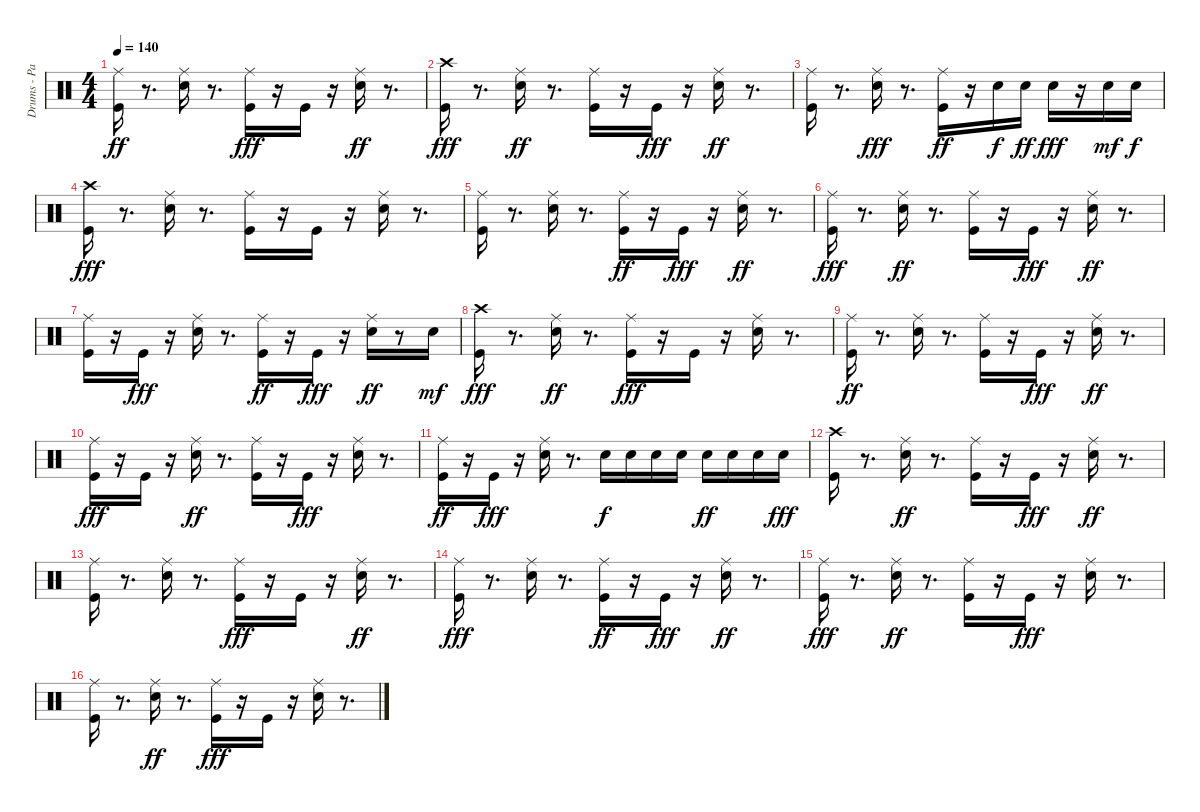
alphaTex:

\track ("Drums - Paice" "Drums - Pa") {instrument percussion}
\staff {score}
\articulation defaults
\ts (4 4)
\tempo 140
\clef neutral
\ks c
("Kick (hit)" "Ride (middle)").16{dy ff} r.8{d} ("Snare (hit) 2" "Ride (middle)").16 r.8{d} ("Ride (middle)" "Kick (hit)").16{dy fff} r.16 "Kick (hit)".16 r.16 ("Snare (hit) 2" "Ride (middle)").16{dy ff} r.8{d} |
("Crash high (hit)" "Kick (hit)").16{dy fff} r.8{d} ("Snare (hit) 2" "Ride (middle)").16{dy ff} r.8{d} ("Kick (hit)" "Ride (middle)").16 r.16 "Kick (hit)".16{dy fff} r.16 ("Snare (hit) 2" "Ride (middle)").16{dy ff} r.8{d} |
("Kick (hit)" "Ride (middle)").16 r.8{d} ("Ride (middle)" "Snare (hit) 2").16{dy fff} r.8{d} ("Kick (hit)" "Ride (middle)").16{dy ff} r.16 "Snare (hit) 2".16{dy f} "Snare (hit) 2".16{dy ff} "Snare (hit) 2".16{dy fff} r.16 "Snare (hit) 2".16{dy mf} "Snare (hit) 2".16{dy f} |
("Kick (hit)" "Crash high (hit)").16{dy fff} r.8{d} ("Ride (middle)" "Snare (hit) 2").16 r.8{d} ("Ride (middle)" "Kick (hit)").16 r.16 "Kick (hit)".16 r.16 ("Ride (middle)" "Snare (hit) 2").16 r.8{d} |
("Ride (middle)" "Kick (hit)").16 r.8{d} ("Ride (middle)" "Snare (hit) 2").16 r.8{d} ("Kick (hit)" "Ride (middle)").16{dy ff} r.16 "Kick (hit)".16{dy fff} r.16 ("Snare (hit) 2" "Ride (middle)").16{dy ff} r.8{d} |
("Ride (middle)" "Kick (hit)").16{dy fff} r.8{d} ("Snare (hit) 2" "Ride (middle)").16{dy ff} r.8{d} ("Kick (hit)" "Ride (middle)").16 r.16 "Kick (hit)".16{dy fff} r.16 ("Snare (hit) 2" "Ride (middle)").16{dy ff} r.8{d} |
("Kick (hit)" "Ride (middle)").16 r.16 "Kick (hit)".16{dy fff} r.16 ("Ride (middle)" "Snare (hit) 2").16 r.8{d} ("Kick (hit)" "Ride (middle)").16{dy ff} r.16 "Kick (hit)".16{dy fff} r.16 ("Snare (hit) 2" "Ride (middle)").16{dy ff} r.8 "Snare (hit) 2".16{dy mf} |
("Kick (hit)" "Crash high (hit)").16{dy fff} r.8{d} ("Snare (hit) 2" "Ride (middle)").16{dy ff} r.8{d} ("Ride (middle)" "Kick (hit)").16{dy fff} r.16 "Kick (hit)".16 r.16 ("Ride (middle)" "Snare (hit) 2").16 r.8{d} |
("Kick (hit)" "Ride (middle)").16{dy ff} r.8{d} ("Snare (hit) 2" "Ride (middle)").16 r.8{d} ("Kick (hit)" "Ride (middle)").16 r.16 "Kick (hit)".16{dy fff} r.16 ("Snare (hit) 2" "Ride (middle)").16{dy ff} r.8{d} |
("Ride (middle)" "Kick (hit)").16{dy fff} r.16 "Kick (hit)".16 r.16 ("Snare (hit) 2" "Ride (middle)").16{dy ff} r.8{d} ("Kick (hit)" "Ride (middle)").16 r.16 "Kick (hit)".16{dy fff} r.16 ("Ride (middle)" "Snare (hit) 2").16 r.8{d} |
("Kick (hit)" "Ride (middle)").16{dy ff} r.16 "Kick (hit)".16{dy fff} r.16 ("Ride (middle)" "Snare (hit) 2").16 r.8{d} "Snare (hit) 2".16{dy f} "Snare (hit) 2".16 "Snare (hit) 2".16 "Snare (hit) 2".16 "Snare (hit) 2".16{dy ff} "Snare (hit) 2".16 "Snare (hit) 2".16 "Snare (hit) 2".16{dy fff} |
("Crash high (hit)" "Kick (hit)").16 r.8{d} ("Snare (hit) 2" "Ride (middle)").16{dy ff} r.8{d} ("Kick (hit)" "Ride (middle)").16 r.16 "Kick (hit)".16{dy fff} r.16 ("Snare (hit) 2" "Ride (middle)").16{dy ff} r.8{d} |
("Kick (hit)" "Ride (middle)").16 r.8{d} ("Snare (hit) 2" "Ride (middle)").16 r.8{d} ("Ride (middle)" "Kick (hit)").16{dy fff} r.16 "Kick (hit)".16 r.16 ("Snare (hit) 2" "Ride (middle)").16{dy ff} r.8{d} |
("Ride (middle)" "Kick (hit)").16{dy fff} r.8{d} ("Ride (middle)" "Snare (hit) 2").16 r.8{d} ("Kick (hit)" "Ride (middle)").16{dy ff} r.16 "Kick (hit)".16{dy fff} r.16 ("Snare (hit) 2" "Ride (middle)").16{dy ff} r.8{d} |
("Ride (middle)" "Kick (hit)").16{dy fff} r.8{d} ("Snare (hit) 2" "Ride (middle)").16{dy ff} r.8{d} ("Kick (hit)" "Ride (middle)").16 r.16 "Kick (hit)".16{dy fff} r.16 ("Ride (middle)" "Snare (hit) 2").16 r.8{d} |
("Ride (middle)" "Kick (hit)").16 r.8{d} ("Snare (hit) 2" "Ride (middle)").16{dy ff} r.8{d} ("Ride (middle)" "Kick (hit)").16{dy fff} r.16 "Kick (hit)".16 r.16 ("Ride (middle)" "Snare (hit) 2").16 r.8{d}
